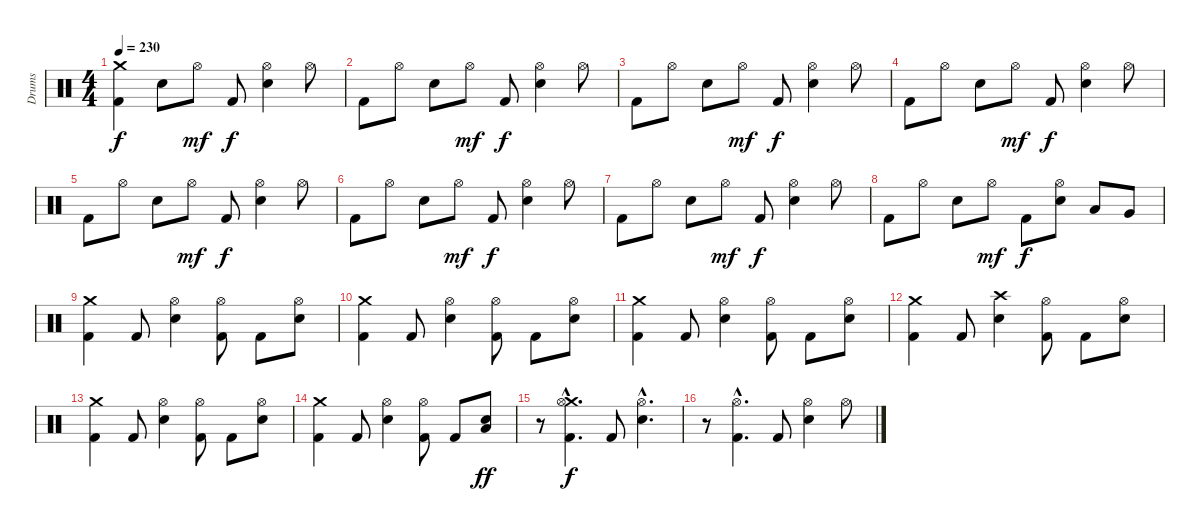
\track ("Drums" "Drums") {instrument percussion}
\staff {score}
\articulation defaults
\ts (4 4)
\tempo 230
\clef neutral
\ks c
("Crash medium (hit)" "Kick (hit) 2").4{dy f} "Electric Snare (hit)".8 "Hi-Hat (open)".8{dy mf} "Kick (hit) 2".8{dy f} ("Hi-Hat (open)" "Electric Snare (hit)").4 "Hi-Hat (open)".8 |
"Kick (hit) 2".8 "Hi-Hat (open)".8 "Electric Snare (hit)".8 "Hi-Hat (open)".8{dy mf} "Kick (hit) 2".8{dy f} ("Hi-Hat (open)" "Electric Snare (hit)").4 "Hi-Hat (open)".8 |
"Kick (hit) 2".8 "Hi-Hat (open)".8 "Electric Snare (hit)".8 "Hi-Hat (open)".8{dy mf} "Kick (hit) 2".8{dy f} ("Hi-Hat (open)" "Electric Snare (hit)").4 "Hi-Hat (open)".8 |
"Kick (hit) 2".8 "Hi-Hat (open)".8 "Electric Snare (hit)".8 "Hi-Hat (open)".8{dy mf} "Kick (hit) 2".8{dy f} ("Hi-Hat (open)" "Electric Snare (hit)").4 "Hi-Hat (open)".8 |
"Kick (hit) 2".8 "Hi-Hat (open)".8 "Electric Snare (hit)".8 "Hi-Hat (open)".8{dy mf} "Kick (hit) 2".8{dy f} ("Hi-Hat (open)" "Electric Snare (hit)").4 "Hi-Hat (open)".8 |
"Kick (hit) 2".8 "Hi-Hat (open)".8 "Electric Snare (hit)".8 "Hi-Hat (open)".8{dy mf} "Kick (hit) 2".8{dy f} ("Hi-Hat (open)" "Electric Snare (hit)").4 "Hi-Hat (open)".8 |
"Kick (hit) 2".8 "Hi-Hat (open)".8 "Electric Snare (hit)".8 "Hi-Hat (open)".8{dy mf} "Kick (hit) 2".8{dy f} ("Hi-Hat (open)" "Electric Snare (hit)").4 "Hi-Hat (open)".8 |
"Kick (hit) 2".8 "Hi-Hat (open)".8 "Electric Snare (hit)".8 "Hi-Hat (open)".8{dy mf} "Kick (hit) 2".8{dy f} ("Hi-Hat (open)" "Electric Snare (hit)").8 "Low Tom (hit)".8 "Very Low Tom (hit)".8 |
("Crash medium (hit)" "Kick (hit) 2").4 "Kick (hit) 2".8 ("Hi-Hat (open)" "Electric Snare (hit)").4 ("Hi-Hat (open)" "Kick (hit) 2").8 "Kick (hit) 2".8 ("Hi-Hat (open)" "Electric Snare (hit)").8 |
("Crash medium (hit)" "Kick (hit) 2").4 "Kick (hit) 2".8 ("Hi-Hat (open)" "Electric Snare (hit)").4 ("Hi-Hat (open)" "Kick (hit) 2").8 "Kick (hit) 2".8 ("Hi-Hat (open)" "Electric Snare (hit)").8 |
("Crash medium (hit)" "Kick (hit) 2").4 "Kick (hit) 2".8 ("Hi-Hat (open)" "Electric Snare (hit)").4 ("Hi-Hat (open)" "Kick (hit) 2").8 "Kick (hit) 2".8 ("Hi-Hat (open)" "Electric Snare (hit)").8 |
("Crash medium (hit)" "Kick (hit) 2").4 "Kick (hit) 2".8 ("Crash high (hit)" "Electric Snare (hit)").4 ("Hi-Hat (open)" "Kick (hit) 2").8 "Kick (hit) 2".8 ("Hi-Hat (open)" "Electric Snare (hit)").8 |
("Crash medium (hit)" "Kick (hit) 2").4 "Kick (hit) 2".8 ("Hi-Hat (open)" "Electric Snare (hit)").4 ("Hi-Hat (open)" "Kick (hit) 2").8 "Kick (hit) 2".8 ("Hi-Hat (open)" "Electric Snare (hit)").8 |
("Crash medium (hit)" "Kick (hit) 2").4 "Kick (hit) 2".8 ("Hi-Hat (open)" "Electric Snare (hit)").4 ("Hi-Hat (open)" "Kick (hit) 2").8 "Kick (hit) 2".8 ("Low Floor Tom (hit)" "Electric Snare (hit)").8{dy ff} |
r.8 ("Crash medium (hit)"{hac} "Hi-Hat (open)"{hac} "Kick (hit) 2"{hac}).4{d dy f} "Kick (hit) 2".8 ("Hi-Hat (open)"{hac} "Electric Snare (hit)"{hac}).4{d} |
r.8 ("Hi-Hat (open)"{hac} "Kick (hit) 2"{hac}).4{d} "Kick (hit) 2".8 ("Hi-Hat (open)" "Electric Snare (hit)").4 "Hi-Hat (open)".8
